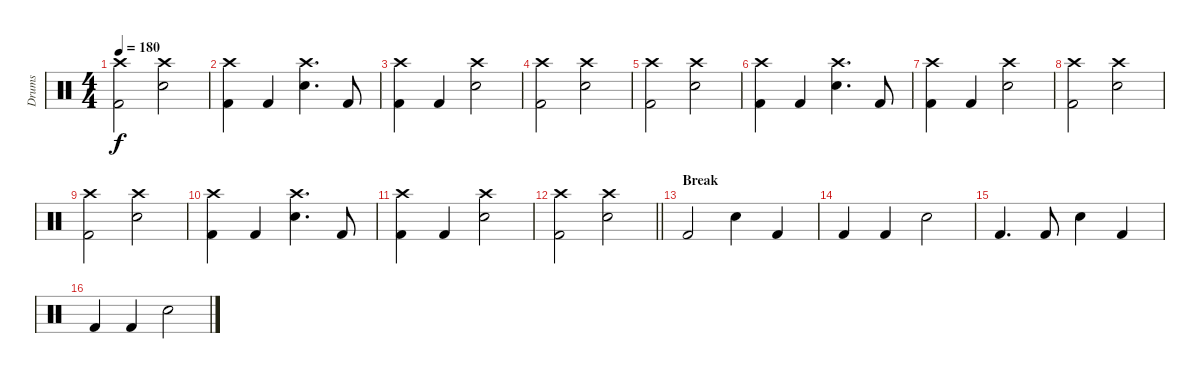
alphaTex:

\track ("Drums" "Drums") {instrument percussion}
\staff {score}
\articulation defaults
\ts (4 4)
\tempo 180
\clef neutral
\ks c
("Kick (hit) 2" "Crash high (hit)").2{dy f} ("Crash high (hit)" "Electric Snare (hit)").2 |
("Crash high (hit)" "Kick (hit) 2").4 "Kick (hit) 2".4 ("Crash high (hit)" "Electric Snare (hit)").4{d} "Kick (hit) 2".8 |
("Crash high (hit)" "Kick (hit) 2").4 "Kick (hit) 2".4 ("Crash high (hit)" "Electric Snare (hit)").2 |
("Crash high (hit)" "Kick (hit) 2").2 ("Crash high (hit)" "Electric Snare (hit)").2 |
("Kick (hit) 2" "Crash high (hit)").2 ("Crash high (hit)" "Electric Snare (hit)").2 |
("Crash high (hit)" "Kick (hit) 2").4 "Kick (hit) 2".4 ("Crash high (hit)" "Electric Snare (hit)").4{d} "Kick (hit) 2".8 |
("Crash high (hit)" "Kick (hit) 2").4 "Kick (hit) 2".4 ("Crash high (hit)" "Electric Snare (hit)").2 |
("Crash high (hit)" "Kick (hit) 2").2 ("Crash high (hit)" "Electric Snare (hit)").2 |
("Kick (hit) 2" "Crash high (hit)").2 ("Crash high (hit)" "Electric Snare (hit)").2 |
("Crash high (hit)" "Kick (hit) 2").4 "Kick (hit) 2".4 ("Crash high (hit)" "Electric Snare (hit)").4{d} "Kick (hit) 2".8 |
("Crash high (hit)" "Kick (hit) 2").4 "Kick (hit) 2".4 ("Crash high (hit)" "Electric Snare (hit)").2 |
\barLineRight lightlight
("Crash high (hit)" "Kick (hit) 2").2 ("Crash high (hit)" "Electric Snare (hit)").2 |
\section ("" "Break")
"Kick (hit) 2".2 "Electric Snare (hit)".4 "Kick (hit) 2".4 |
"Kick (hit) 2".4 "Kick (hit) 2".4 "Electric Snare (hit)".2 |
"Kick (hit) 2".4{d} "Kick (hit) 2".8 "Electric Snare (hit)".4 "Kick (hit) 2".4 |
"Kick (hit) 2".4 "Kick (hit) 2".4 "Electric Snare (hit)".2
